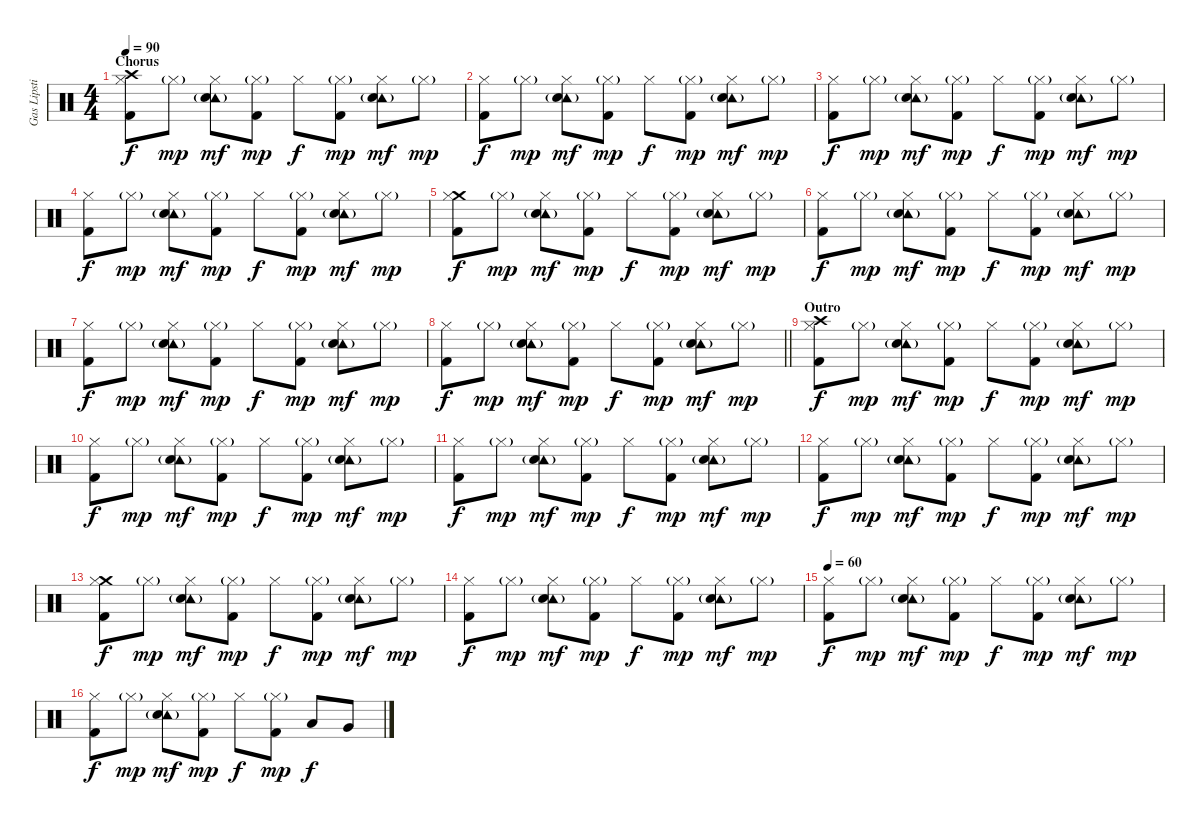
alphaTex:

\track ("Gas Lipstick (Drums)" "Gas Lipsti") {instrument percussion}
\staff {score}
\articulation defaults
\ts (4 4)
\section ("" "Chorus")
\tempo 90
\clef neutral
\ks c
("Crash high (hit)" "Hi-Hat (closed)" "Kick (hit) 2").8{dy f} "Hi-Hat (closed)"{g}.8{dy mp} ("Tambourine (hit)"{g} "Hi-Hat (closed)" "Snare (hit) 2").8{dy mf} ("Hi-Hat (closed)"{g} "Kick (hit) 2").8{dy mp} "Hi-Hat (closed)".8{dy f} ("Hi-Hat (closed)"{g} "Kick (hit) 2").8{dy mp} ("Tambourine (hit)"{g} "Hi-Hat (closed)" "Snare (hit) 2").8{dy mf} "Hi-Hat (closed)"{g}.8{dy mp} |
("Hi-Hat (closed)" "Kick (hit) 2").8{dy f} "Hi-Hat (closed)"{g}.8{dy mp} ("Tambourine (hit)"{g} "Hi-Hat (closed)" "Snare (hit) 2").8{dy mf} ("Hi-Hat (closed)"{g} "Kick (hit) 2").8{dy mp} "Hi-Hat (closed)".8{dy f} ("Hi-Hat (closed)"{g} "Kick (hit) 2").8{dy mp} ("Tambourine (hit)"{g} "Hi-Hat (closed)" "Snare (hit) 2").8{dy mf} "Hi-Hat (closed)"{g}.8{dy mp} |
("Hi-Hat (closed)" "Kick (hit) 2").8{dy f} "Hi-Hat (closed)"{g}.8{dy mp} ("Tambourine (hit)"{g} "Hi-Hat (closed)" "Snare (hit) 2").8{dy mf} ("Hi-Hat (closed)"{g} "Kick (hit) 2").8{dy mp} "Hi-Hat (closed)".8{dy f} ("Hi-Hat (closed)"{g} "Kick (hit) 2").8{dy mp} ("Tambourine (hit)"{g} "Hi-Hat (closed)" "Snare (hit) 2").8{dy mf} "Hi-Hat (closed)"{g}.8{dy mp} |
("Hi-Hat (closed)" "Kick (hit) 2").8{dy f} "Hi-Hat (closed)"{g}.8{dy mp} ("Tambourine (hit)"{g} "Hi-Hat (closed)" "Snare (hit) 2").8{dy mf} ("Hi-Hat (closed)"{g} "Kick (hit) 2").8{dy mp} "Hi-Hat (closed)".8{dy f} ("Hi-Hat (closed)"{g} "Kick (hit) 2").8{dy mp} ("Tambourine (hit)"{g} "Hi-Hat (closed)" "Snare (hit) 2").8{dy mf} "Hi-Hat (closed)"{g}.8{dy mp} |
("Crash medium (hit)" "Hi-Hat (closed)" "Kick (hit) 2").8{dy f} "Hi-Hat (closed)"{g}.8{dy mp} ("Tambourine (hit)"{g} "Hi-Hat (closed)" "Snare (hit) 2").8{dy mf} ("Hi-Hat (closed)"{g} "Kick (hit) 2").8{dy mp} "Hi-Hat (closed)".8{dy f} ("Hi-Hat (closed)"{g} "Kick (hit) 2").8{dy mp} ("Tambourine (hit)"{g} "Hi-Hat (closed)" "Snare (hit) 2").8{dy mf} "Hi-Hat (closed)"{g}.8{dy mp} |
("Hi-Hat (closed)" "Kick (hit) 2").8{dy f} "Hi-Hat (closed)"{g}.8{dy mp} ("Tambourine (hit)"{g} "Hi-Hat (closed)" "Snare (hit) 2").8{dy mf} ("Hi-Hat (closed)"{g} "Kick (hit) 2").8{dy mp} "Hi-Hat (closed)".8{dy f} ("Hi-Hat (closed)"{g} "Kick (hit) 2").8{dy mp} ("Tambourine (hit)"{g} "Hi-Hat (closed)" "Snare (hit) 2").8{dy mf} "Hi-Hat (closed)"{g}.8{dy mp} |
("Hi-Hat (closed)" "Kick (hit) 2").8{dy f} "Hi-Hat (closed)"{g}.8{dy mp} ("Tambourine (hit)"{g} "Hi-Hat (closed)" "Snare (hit) 2").8{dy mf} ("Hi-Hat (closed)"{g} "Kick (hit) 2").8{dy mp} "Hi-Hat (closed)".8{dy f} ("Hi-Hat (closed)"{g} "Kick (hit) 2").8{dy mp} ("Tambourine (hit)"{g} "Hi-Hat (closed)" "Snare (hit) 2").8{dy mf} "Hi-Hat (closed)"{g}.8{dy mp} |
\barLineRight lightlight
("Hi-Hat (closed)" "Kick (hit) 2").8{dy f} "Hi-Hat (closed)"{g}.8{dy mp} ("Tambourine (hit)"{g} "Hi-Hat (closed)" "Snare (hit) 2").8{dy mf} ("Hi-Hat (closed)"{g} "Kick (hit) 2").8{dy mp} "Hi-Hat (closed)".8{dy f} ("Hi-Hat (closed)"{g} "Kick (hit) 2").8{dy mp} ("Tambourine (hit)"{g} "Hi-Hat (closed)" "Snare (hit) 2").8{dy mf} "Hi-Hat (closed)"{g}.8{dy mp} |
\section ("" "Outro")
("Crash high (hit)" "Hi-Hat (closed)" "Kick (hit) 2").8{dy f} "Hi-Hat (closed)"{g}.8{dy mp} ("Tambourine (hit)"{g} "Hi-Hat (closed)" "Snare (hit) 2").8{dy mf} ("Hi-Hat (closed)"{g} "Kick (hit) 2").8{dy mp} "Hi-Hat (closed)".8{dy f} ("Hi-Hat (closed)"{g} "Kick (hit) 2").8{dy mp} ("Tambourine (hit)"{g} "Hi-Hat (closed)" "Snare (hit) 2").8{dy mf} "Hi-Hat (closed)"{g}.8{dy mp} |
("Hi-Hat (closed)" "Kick (hit) 2").8{dy f} "Hi-Hat (closed)"{g}.8{dy mp} ("Tambourine (hit)"{g} "Hi-Hat (closed)" "Snare (hit) 2").8{dy mf} ("Hi-Hat (closed)"{g} "Kick (hit) 2").8{dy mp} "Hi-Hat (closed)".8{dy f} ("Hi-Hat (closed)"{g} "Kick (hit) 2").8{dy mp} ("Tambourine (hit)"{g} "Hi-Hat (closed)" "Snare (hit) 2").8{dy mf} "Hi-Hat (closed)"{g}.8{dy mp} |
("Hi-Hat (closed)" "Kick (hit) 2").8{dy f} "Hi-Hat (closed)"{g}.8{dy mp} ("Tambourine (hit)"{g} "Hi-Hat (closed)" "Snare (hit) 2").8{dy mf} ("Hi-Hat (closed)"{g} "Kick (hit) 2").8{dy mp} "Hi-Hat (closed)".8{dy f} ("Hi-Hat (closed)"{g} "Kick (hit) 2").8{dy mp} ("Tambourine (hit)"{g} "Hi-Hat (closed)" "Snare (hit) 2").8{dy mf} "Hi-Hat (closed)"{g}.8{dy mp} |
("Hi-Hat (closed)" "Kick (hit) 2").8{dy f} "Hi-Hat (closed)"{g}.8{dy mp} ("Tambourine (hit)"{g} "Hi-Hat (closed)" "Snare (hit) 2").8{dy mf} ("Hi-Hat (closed)"{g} "Kick (hit) 2").8{dy mp} "Hi-Hat (closed)".8{dy f} ("Hi-Hat (closed)"{g} "Kick (hit) 2").8{dy mp} ("Tambourine (hit)"{g} "Hi-Hat (closed)" "Snare (hit) 2").8{dy mf} "Hi-Hat (closed)"{g}.8{dy mp} |
("Crash medium (hit)" "Hi-Hat (closed)" "Kick (hit) 2").8{dy f} "Hi-Hat (closed)"{g}.8{dy mp} ("Tambourine (hit)"{g} "Hi-Hat (closed)" "Snare (hit) 2").8{dy mf} ("Hi-Hat (closed)"{g} "Kick (hit) 2").8{dy mp} "Hi-Hat (closed)".8{dy f} ("Hi-Hat (closed)"{g} "Kick (hit) 2").8{dy mp} ("Tambourine (hit)"{g} "Hi-Hat (closed)" "Snare (hit) 2").8{dy mf} "Hi-Hat (closed)"{g}.8{dy mp} |
("Hi-Hat (closed)" "Kick (hit) 2").8{dy f} "Hi-Hat (closed)"{g}.8{dy mp} ("Tambourine (hit)"{g} "Hi-Hat (closed)" "Snare (hit) 2").8{dy mf} ("Hi-Hat (closed)"{g} "Kick (hit) 2").8{dy mp} "Hi-Hat (closed)".8{dy f} ("Hi-Hat (closed)"{g} "Kick (hit) 2").8{dy mp} ("Tambourine (hit)"{g} "Hi-Hat (closed)" "Snare (hit) 2").8{dy mf} "Hi-Hat (closed)"{g}.8{dy mp} |
\tempo 60
("Hi-Hat (closed)" "Kick (hit) 2").8{dy f} "Hi-Hat (closed)"{g}.8{dy mp} ("Tambourine (hit)"{g} "Hi-Hat (closed)" "Snare (hit) 2").8{dy mf} ("Hi-Hat (closed)"{g} "Kick (hit) 2").8{dy mp} "Hi-Hat (closed)".8{dy f} ("Hi-Hat (closed)"{g} "Kick (hit) 2").8{dy mp} ("Tambourine (hit)"{g} "Hi-Hat (closed)" "Snare (hit) 2").8{dy mf} "Hi-Hat (closed)"{g}.8{dy mp} |
("Hi-Hat (closed)" "Kick (hit) 2").8{dy f} "Hi-Hat (closed)"{g}.8{dy mp} ("Tambourine (hit)"{g} "Hi-Hat (closed)" "Snare (hit) 2").8{dy mf} ("Hi-Hat (closed)"{g} "Kick (hit) 2").8{dy mp} "Hi-Hat (closed)".8{dy f} ("Hi-Hat (closed)"{g} "Kick (hit) 2").8{dy mp} "Low Tom (hit)".8{dy f} "Very Low Tom (hit)".8
